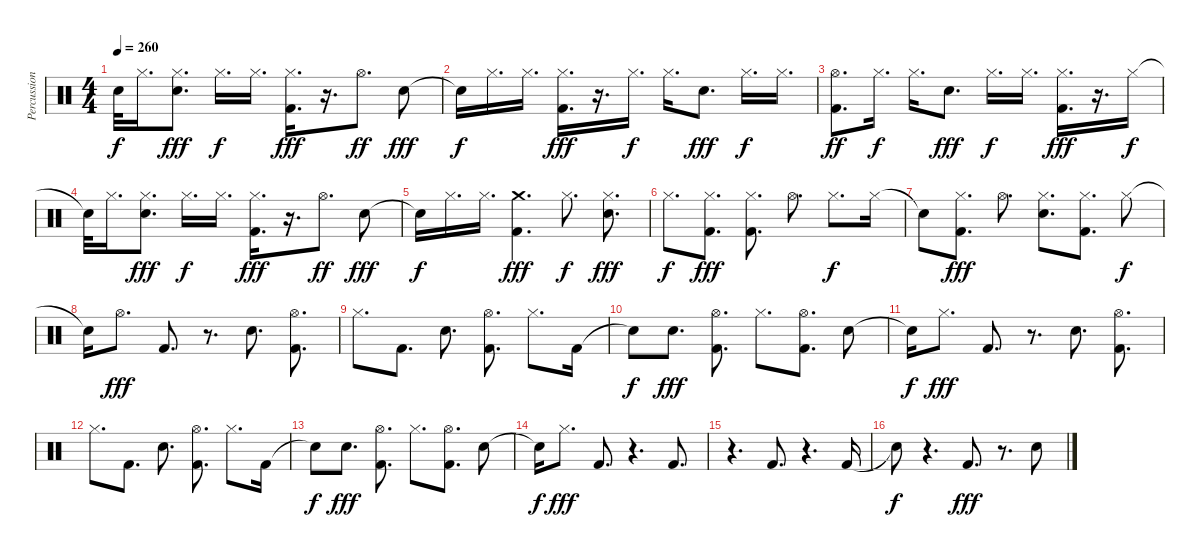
\track ("Percussion" "Percussion") {instrument percussion}
\staff {score}
\articulation defaults
\ts (4 4)
\tempo 260
\clef neutral
\ks c "Snare (hit)"{t}.32{dy f} "Hi-Hat (closed)".16{d}
("Hi-Hat (closed)" "Electric Snare (hit)").8{d dy fff} "Hi-Hat (closed)".16{d dy f} "Hi-Hat (closed)".16{d} ("Kick (hit) 2" "Hi-Hat (closed)").16{d dy fff} r.16{d} "Hi-Hat (open)".8{d dy ff} "Electric Snare (hit)".8{dy fff} |
"Snare (hit)"{t}.16{dy f} "Hi-Hat (closed)".16{d} "Hi-Hat (closed)".16{d} ("Kick (hit) 2" "Hi-Hat (closed)").16{d dy fff} r.16{d} "Hi-Hat (closed)".16{d dy f} "Hi-Hat (closed)".16{d} "Electric Snare (hit)".8{d dy fff} "Hi-Hat (closed)".16{d dy f} "Hi-Hat (closed)".16{d} |
("Kick (hit) 2" "Hi-Hat (open)").8{d dy ff} "Hi-Hat (closed)".16{d dy f} "Hi-Hat (closed)".16{d} "Electric Snare (hit)".8{d dy fff} "Hi-Hat (closed)".16{d dy f} "Hi-Hat (closed)".16{d} ("Kick (hit) 2" "Hi-Hat (closed)").16{d dy fff} r.16{d} "Hi-Hat (closed)".16{dy f} |
"Snare (hit)"{t}.32 "Hi-Hat (closed)".16{d} ("Hi-Hat (closed)" "Electric Snare (hit)").8{d dy fff} "Hi-Hat (closed)".16{d dy f} "Hi-Hat (closed)".16{d} ("Kick (hit) 2" "Hi-Hat (closed)").16{d dy fff} r.16{d} "Hi-Hat (open)".8{d dy ff} "Electric Snare (hit)".8{dy fff} |
"Snare (hit)"{t}.16{dy f} "Hi-Hat (closed)".16{d} "Hi-Hat (closed)".16{d} ("Kick (hit) 2" "Crash medium (hit)").4{d dy fff} "Hi-Hat (closed)".8{d dy f} ("Electric Snare (hit)" "Hi-Hat (closed)").8{d dy fff} |
"Hi-Hat (closed)".8{d dy f} ("Kick (hit) 2" "Hi-Hat (closed)").8{d dy fff} ("Kick (hit) 2" "Hi-Hat (closed)").8{d} "Hi-Hat (open)".8{d} "Hi-Hat (closed)".8{d dy f} "Hi-Hat (closed)".16 |
"Snare (hit)"{t}.8 ("Hi-Hat (closed)" "Kick (hit) 2").8{d dy fff} "Hi-Hat (open)".8{d} ("Hi-Hat (closed)" "Electric Snare (hit)").8{d} ("Hi-Hat (closed)" "Kick (hit) 2").8{d} "Hi-Hat (closed)".8{dy f} |
"Snare (hit)"{t}.16 "Hi-Hat (open)".8{d dy fff} "Kick (hit) 2".8{d} r.8{d} "Electric Snare (hit)".8{d} ("Kick (hit) 2" "Hi-Hat (open)").8{d} |
"Hi-Hat (closed)".8{d} "Kick (hit) 2".8{d} "Electric Snare (hit)".8{d} ("Kick (hit) 2" "Hi-Hat (open)").8{d} "Hi-Hat (closed)".8{d} "Kick (hit) 2".16 |
"Snare (hit)"{t}.8{dy f} "Electric Snare (hit)".8{d dy fff} ("Kick (hit) 2" "Hi-Hat (open)").8{d} "Hi-Hat (closed)".8{d} ("Hi-Hat (open)" "Kick (hit) 2").8{d} "Electric Snare (hit)".8 |
"Snare (hit)"{t}.16{dy f} "Hi-Hat (closed)".8{d dy fff} "Kick (hit) 2".8{d} r.8{d} "Electric Snare (hit)".8{d} ("Kick (hit) 2" "Hi-Hat (open)").8{d} |
"Hi-Hat (closed)".8{d} "Kick (hit) 2".8{d} "Electric Snare (hit)".8{d} ("Kick (hit) 2" "Hi-Hat (open)").8{d} "Hi-Hat (closed)".8{d} "Kick (hit) 2".16 |
"Snare (hit)"{t}.8{dy f} "Electric Snare (hit)".8{d dy fff} ("Kick (hit) 2" "Hi-Hat (open)").8{d} "Hi-Hat (closed)".8{d} ("Hi-Hat (open)" "Kick (hit) 2").8{d} "Electric Snare (hit)".8 |
"Snare (hit)"{t}.16{dy f} "Hi-Hat (closed)".8{d dy fff} "Kick (hit) 2".8{d} r.4{d} "Kick (hit) 2".8{d} |
r.4{d} "Kick (hit) 2".8{d} r.4{d} "Kick (hit) 2".16 |
"Snare (hit)"{t}.8{dy f} r.4{d} "Kick (hit) 2".8{d dy fff} r.8{d} "Electric Snare (hit)".8
